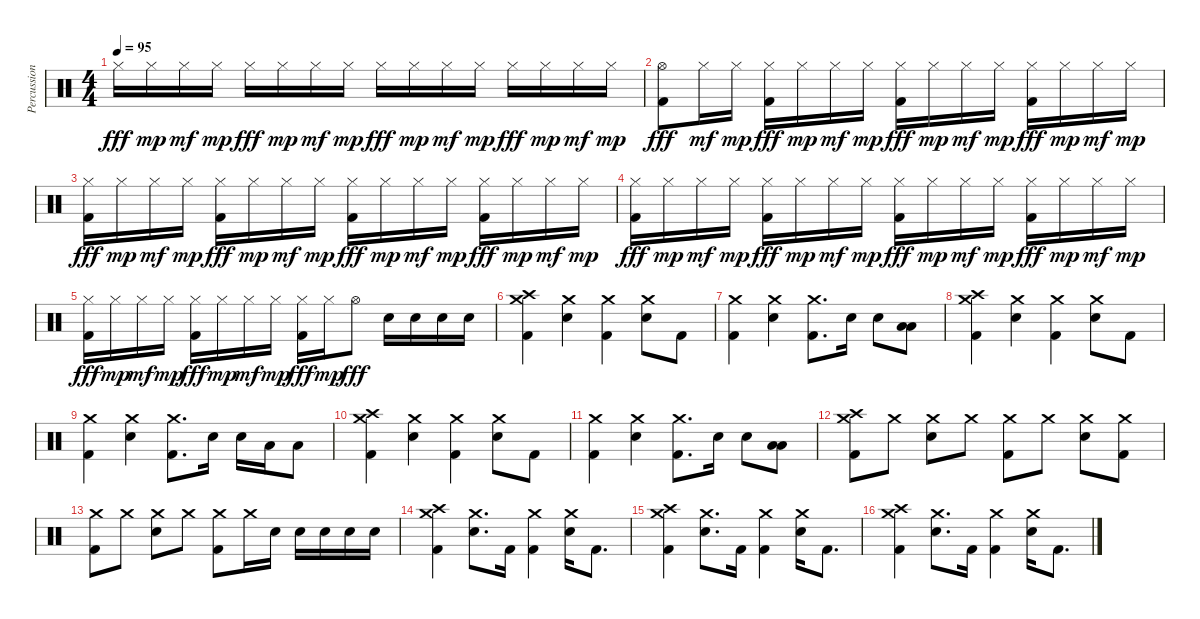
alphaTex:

\track ("Percussion" "Percussion") {instrument percussion}
\staff {score}
\articulation defaults
\ts (4 4)
\tempo 95
\clef neutral
\ks c "Hi-Hat (closed)".16{dy fff} "Hi-Hat (closed)".16{dy mp} "Hi-Hat (closed)".16{dy mf} "Hi-Hat (closed)".16{dy mp} "Hi-Hat (closed)".16{dy fff} "Hi-Hat (closed)".16{dy mp} "Hi-Hat (closed)".16{dy mf} "Hi-Hat (closed)".16{dy mp} "Hi-Hat (closed)".16{dy fff} "Hi-Hat (closed)".16{dy mp} "Hi-Hat (closed)".16{dy mf} "Hi-Hat (closed)".16{dy mp} "Hi-Hat (closed)".16{dy fff} "Hi-Hat (closed)".16{dy mp} "Hi-Hat (closed)".16{dy mf} "Hi-Hat (closed)".16{dy mp}
|
("Hi-Hat (open)" "Kick (hit) 2").8{dy fff} "Hi-Hat (closed)".16{dy mf} "Hi-Hat (closed)".16{dy mp} ("Hi-Hat (closed)" "Kick (hit) 2").16{dy fff} "Hi-Hat (closed)".16{dy mp} "Hi-Hat (closed)".16{dy mf} "Hi-Hat (closed)".16{dy mp} ("Hi-Hat (closed)" "Kick (hit) 2").16{dy fff} "Hi-Hat (closed)".16{dy mp} "Hi-Hat (closed)".16{dy mf} "Hi-Hat (closed)".16{dy mp} ("Hi-Hat (closed)" "Kick (hit) 2").16{dy fff} "Hi-Hat (closed)".16{dy mp} "Hi-Hat (closed)".16{dy mf} "Hi-Hat (closed)".16{dy mp} |
("Hi-Hat (closed)" "Kick (hit) 2").16{dy fff} "Hi-Hat (closed)".16{dy mp} "Hi-Hat (closed)".16{dy mf} "Hi-Hat (closed)".16{dy mp} ("Hi-Hat (closed)" "Kick (hit) 2").16{dy fff} "Hi-Hat (closed)".16{dy mp} "Hi-Hat (closed)".16{dy mf} "Hi-Hat (closed)".16{dy mp} ("Hi-Hat (closed)" "Kick (hit) 2").16{dy fff} "Hi-Hat (closed)".16{dy mp} "Hi-Hat (closed)".16{dy mf} "Hi-Hat (closed)".16{dy mp} ("Hi-Hat (closed)" "Kick (hit) 2").16{dy fff} "Hi-Hat (closed)".16{dy mp} "Hi-Hat (closed)".16{dy mf} "Hi-Hat (closed)".16{dy mp} |
("Hi-Hat (closed)" "Kick (hit) 2").16{dy fff} "Hi-Hat (closed)".16{dy mp} "Hi-Hat (closed)".16{dy mf} "Hi-Hat (closed)".16{dy mp} ("Hi-Hat (closed)" "Kick (hit) 2").16{dy fff} "Hi-Hat (closed)".16{dy mp} "Hi-Hat (closed)".16{dy mf} "Hi-Hat (closed)".16{dy mp} ("Hi-Hat (closed)" "Kick (hit) 2").16{dy fff} "Hi-Hat (closed)".16{dy mp} "Hi-Hat (closed)".16{dy mf} "Hi-Hat (closed)".16{dy mp} ("Hi-Hat (closed)" "Kick (hit) 2").16{dy fff} "Hi-Hat (closed)".16{dy mp} "Hi-Hat (closed)".16{dy mf} "Hi-Hat (closed)".16{dy mp} |
("Hi-Hat (closed)" "Kick (hit) 2").16{dy fff} "Hi-Hat (closed)".16{dy mp} "Hi-Hat (closed)".16{dy mf} "Hi-Hat (closed)".16{dy mp} ("Hi-Hat (closed)" "Kick (hit) 2").16{dy fff} "Hi-Hat (closed)".16{dy mp} "Hi-Hat (closed)".16{dy mf} "Hi-Hat (closed)".16{dy mp} ("Hi-Hat (closed)" "Kick (hit) 2").16{dy fff} "Hi-Hat (closed)".16{dy mp} "Hi-Hat (open)".8{dy fff} "Electric Snare (hit)".16 "Electric Snare (hit)".16 "Electric Snare (hit)".16 "Electric Snare (hit)".16 |
("Crash high (hit)" "Crash medium (hit)" "Kick (hit) 2").4 ("Crash medium (hit)" "Electric Snare (hit)").4 ("Crash medium (hit)" "Kick (hit) 2").4 ("Crash medium (hit)" "Electric Snare (hit)").8 "Kick (hit) 2".8 |
("Crash medium (hit)" "Kick (hit) 2").4 ("Crash medium (hit)" "Electric Snare (hit)").4 ("Crash medium (hit)" "Kick (hit) 2").8{d} "Electric Snare (hit)".16 "Electric Snare (hit)".8 ("Low Tom (hit)" "Low Floor Tom (hit)").8 |
("Crash high (hit)" "Crash medium (hit)" "Kick (hit) 2").4 ("Crash medium (hit)" "Electric Snare (hit)").4 ("Crash medium (hit)" "Kick (hit) 2").4 ("Crash medium (hit)" "Electric Snare (hit)").8 "Kick (hit) 2".8 |
("Crash medium (hit)" "Kick (hit) 2").4 ("Crash medium (hit)" "Electric Snare (hit)").4 ("Crash medium (hit)" "Kick (hit) 2").8{d} "Electric Snare (hit)".16 "Electric Snare (hit)".16 "Low Tom (hit)".16 "Low Floor Tom (hit)".8 |
("Crash high (hit)" "Crash medium (hit)" "Kick (hit) 2").4 ("Crash medium (hit)" "Electric Snare (hit)").4 ("Crash medium (hit)" "Kick (hit) 2").4 ("Crash medium (hit)" "Electric Snare (hit)").8 "Kick (hit) 2".8 |
("Crash medium (hit)" "Kick (hit) 2").4 ("Crash medium (hit)" "Electric Snare (hit)").4 ("Crash medium (hit)" "Kick (hit) 2").8{d} "Electric Snare (hit)".16 "Electric Snare (hit)".8 ("Low Tom (hit)" "Low Floor Tom (hit)").8 |
("Crash high (hit)" "Crash medium (hit)" "Kick (hit) 2").8 "Crash medium (hit)".8 ("Crash medium (hit)" "Electric Snare (hit)").8 "Crash medium (hit)".8 ("Crash medium (hit)" "Kick (hit) 2").8 "Crash medium (hit)".8 ("Crash medium (hit)" "Electric Snare (hit)").8 ("Crash medium (hit)" "Kick (hit) 2").8 |
("Crash medium (hit)" "Kick (hit) 2").8 "Crash medium (hit)".8 ("Crash medium (hit)" "Electric Snare (hit)").8 "Crash medium (hit)".8 ("Crash medium (hit)" "Kick (hit) 2").8 "Crash medium (hit)".16 "Electric Snare (hit)".16 "Electric Snare (hit)".16 "Electric Snare (hit)".16 "Electric Snare (hit)".16 "Electric Snare (hit)".16 |
("Crash high (hit)" "Crash medium (hit)" "Kick (hit) 2").4 ("Crash medium (hit)" "Electric Snare (hit)").8{d} "Kick (hit) 2".16 ("Crash medium (hit)" "Kick (hit) 2").4 ("Crash medium (hit)" "Electric Snare (hit)").16 "Kick (hit) 2".8{d} |
("Crash high (hit)" "Crash medium (hit)" "Kick (hit) 2").4 ("Crash medium (hit)" "Electric Snare (hit)").8{d} "Kick (hit) 2".16 ("Crash medium (hit)" "Kick (hit) 2").4 ("Crash medium (hit)" "Electric Snare (hit)").16 "Kick (hit) 2".8{d} |
("Crash high (hit)" "Crash medium (hit)" "Kick (hit) 2").4 ("Crash medium (hit)" "Electric Snare (hit)").8{d} "Kick (hit) 2".16 ("Crash medium (hit)" "Kick (hit) 2").4 ("Crash medium (hit)" "Electric Snare (hit)").16 "Kick (hit) 2".8{d}
